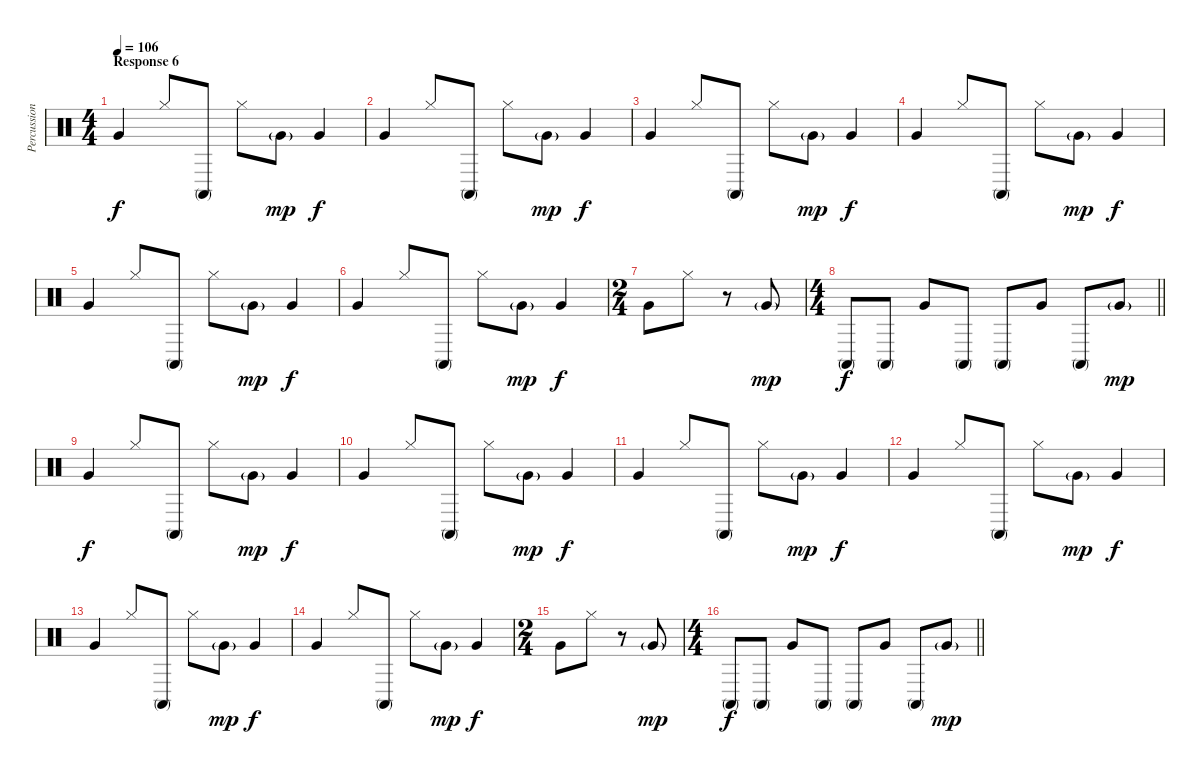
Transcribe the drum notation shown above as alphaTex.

\track ("Percussion" "Percussion") {instrument percussion}
\staff {score}
\articulation defaults
\ts (4 4)
\section ("" "Response 6")
\tempo 106
\clef neutral
\ks c "Very Low Tom (hit)".4{dy f} "Hi-Hat (closed)".8 "Conga high (mute)".8 "Hi-Hat (closed)".8 "Very Low Tom (hit)"{g}.8{dy mp} "Very Low Tom (hit)".4{dy f}
|
"Very Low Tom (hit)".4 "Hi-Hat (closed)".8 "Conga high (mute)".8 "Hi-Hat (closed)".8 "Very Low Tom (hit)"{g}.8{dy mp} "Very Low Tom (hit)".4{dy f} |
"Very Low Tom (hit)".4 "Hi-Hat (closed)".8 "Conga high (mute)".8 "Hi-Hat (closed)".8 "Very Low Tom (hit)"{g}.8{dy mp} "Very Low Tom (hit)".4{dy f} |
"Very Low Tom (hit)".4 "Hi-Hat (closed)".8 "Conga high (mute)".8 "Hi-Hat (closed)".8 "Very Low Tom (hit)"{g}.8{dy mp} "Very Low Tom (hit)".4{dy f} |
"Very Low Tom (hit)".4 "Hi-Hat (closed)".8 "Conga high (mute)".8 "Hi-Hat (closed)".8 "Very Low Tom (hit)"{g}.8{dy mp} "Very Low Tom (hit)".4{dy f} |
"Very Low Tom (hit)".4 "Hi-Hat (closed)".8 "Conga high (mute)".8 "Hi-Hat (closed)".8 "Very Low Tom (hit)"{g}.8{dy mp} "Very Low Tom (hit)".4{dy f} |
\ts (2 4)
"Very Low Tom (hit)".8 "Hi-Hat (closed)".8 r.8 "Very Low Tom (hit)"{g}.8{dy mp} |
\ts (4 4)
\barLineRight lightlight "Conga high (mute)".8{dy f} "Conga high (mute)".8 "Very Low Tom (hit)".8 "Conga high (mute)".8 "Conga high (mute)".8 "Very Low Tom (hit)".8 "Conga high (mute)".8 "Very Low Tom (hit)"{g}.8{dy mp}
|
"Very Low Tom (hit)".4{dy f} "Hi-Hat (closed)".8 "Conga high (mute)".8 "Hi-Hat (closed)".8 "Very Low Tom (hit)"{g}.8{dy mp} "Very Low Tom (hit)".4{dy f} |
"Very Low Tom (hit)".4 "Hi-Hat (closed)".8 "Conga high (mute)".8 "Hi-Hat (closed)".8 "Very Low Tom (hit)"{g}.8{dy mp} "Very Low Tom (hit)".4{dy f} |
"Very Low Tom (hit)".4 "Hi-Hat (closed)".8 "Conga high (mute)".8 "Hi-Hat (closed)".8 "Very Low Tom (hit)"{g}.8{dy mp} "Very Low Tom (hit)".4{dy f} |
"Very Low Tom (hit)".4 "Hi-Hat (closed)".8 "Conga high (mute)".8 "Hi-Hat (closed)".8 "Very Low Tom (hit)"{g}.8{dy mp} "Very Low Tom (hit)".4{dy f} |
"Very Low Tom (hit)".4 "Hi-Hat (closed)".8 "Conga high (mute)".8 "Hi-Hat (closed)".8 "Very Low Tom (hit)"{g}.8{dy mp} "Very Low Tom (hit)".4{dy f} |
"Very Low Tom (hit)".4 "Hi-Hat (closed)".8 "Conga high (mute)".8 "Hi-Hat (closed)".8 "Very Low Tom (hit)"{g}.8{dy mp} "Very Low Tom (hit)".4{dy f} |
\ts (2 4)
"Very Low Tom (hit)".8 "Hi-Hat (closed)".8 r.8 "Very Low Tom (hit)"{g}.8{dy mp} |
\ts (4 4)
\barLineRight lightlight "Conga high (mute)".8{dy f} "Conga high (mute)".8 "Very Low Tom (hit)".8 "Conga high (mute)".8 "Conga high (mute)".8 "Very Low Tom (hit)".8 "Conga high (mute)".8 "Very Low Tom (hit)"{g}.8{dy mp}
